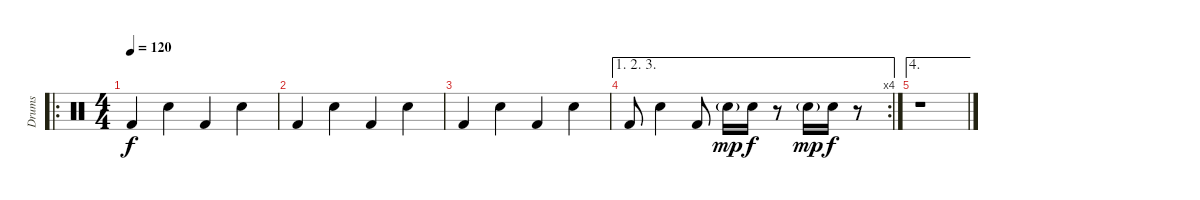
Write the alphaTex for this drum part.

\track ("Drums" "Drums") {instrument percussion}
\staff {score}
\articulation defaults
\ro
\ts (4 4)
\tempo 120
\clef neutral
\ks c "Kick (hit) 2".4{dy f} "Snare (hit) 2".4 "Kick (hit) 2".4 "Snare (hit) 2".4
|
"Kick (hit) 2".4 "Snare (hit) 2".4 "Kick (hit) 2".4 "Snare (hit) 2".4 |
"Kick (hit) 2".4 "Snare (hit) 2".4 "Kick (hit) 2".4 "Snare (hit) 2".4 |
\ae (1 2 3)
\rc 4 "Kick (hit) 2".8 "Snare (hit) 2".4 "Kick (hit) 2".8 "Snare (hit) 2"{g}.16{dy mp} "Snare (hit) 2".16{dy f}
r.8 "Snare (hit) 2"{g}.16{dy mp} "Snare (hit) 2".16{dy f} r.8 |
\ae 4
r.1
